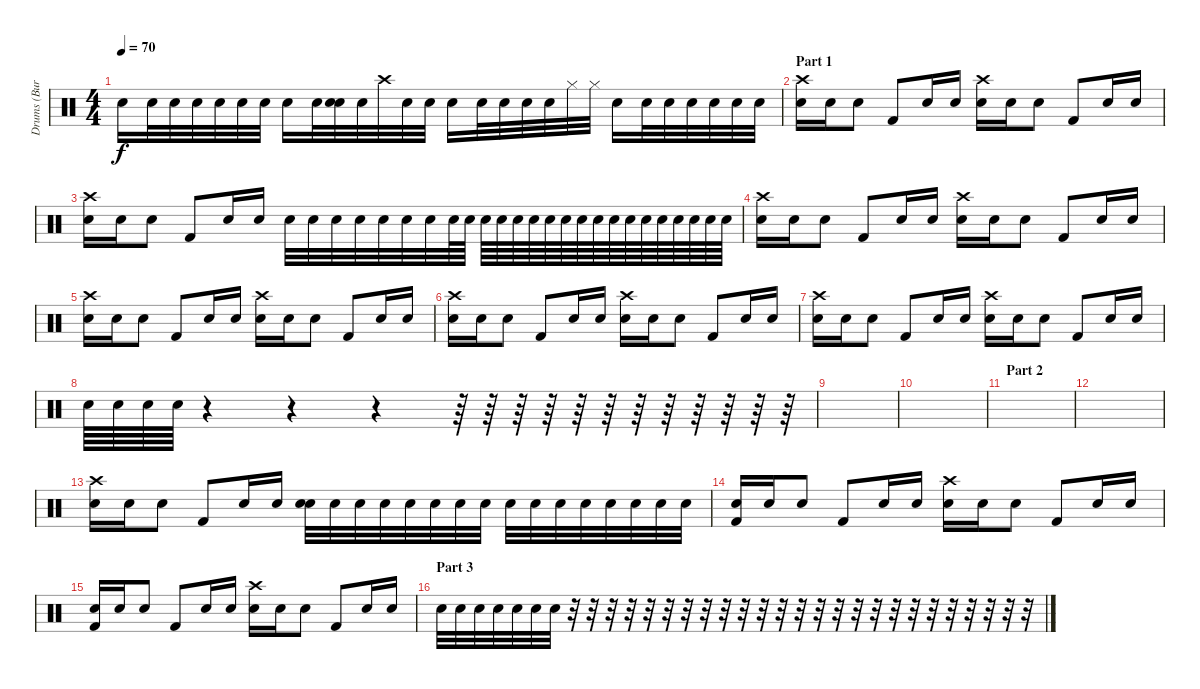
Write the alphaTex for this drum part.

\track ("Drums (Burnz)" "Drums (Bur") {instrument percussion}
\staff {score}
\articulation defaults
\ts (4 4)
\tempo 70
\clef neutral
\ks c "Electric Snare (hit)".16{dy f} "Electric Snare (hit)".32 "Electric Snare (hit)".32 "Electric Snare (hit)".32 "Electric Snare (hit)".32 "Electric Snare (hit)".32 "Electric Snare (hit)".32 "Electric Snare (hit)".16 "Electric Snare (hit)".32
("Electric Snare (hit)" "Electric Snare (hit)").32 "Electric Snare (hit)".32 "Crash high (hit)".32 "Snare (hit) 2".32 "Snare (hit) 2".32 "Snare (hit) 2".16 "Electric Snare (hit)".32 "Electric Snare (hit)".32 "Electric Snare (hit)".32 "Electric Snare (hit)".32 "Hi-Hat (closed)".32 "Hi-Hat (closed)".32 "Snare (hit) 2".16 "Snare (hit) 2".32 "Snare (hit) 2".32 "Electric Snare (hit)".32 "Electric Snare (hit)".32 "Electric Snare (hit)".32 "Electric Snare (hit)".32 |
\section ("" "Part 1")
("Electric Snare (hit)" "Crash high (hit)").16 "Electric Snare (hit)".16 "Electric Snare (hit)".8 "Kick (hit) 2".8 "Electric Snare (hit)".16 "Electric Snare (hit)".16 ("Electric Snare (hit)" "Crash high (hit)").16 "Electric Snare (hit)".16 "Electric Snare (hit)".8 "Kick (hit) 2".8 "Electric Snare (hit)".16 "Electric Snare (hit)".16 |
("Electric Snare (hit)" "Crash high (hit)").16 "Electric Snare (hit)".16 "Electric Snare (hit)".8 "Kick (hit) 2".8 "Electric Snare (hit)".16 "Electric Snare (hit)".16 "Electric Snare (hit)".32 "Electric Snare (hit)".32 "Electric Snare (hit)".32 "Electric Snare (hit)".32 "Electric Snare (hit)".32 "Electric Snare (hit)".32 "Electric Snare (hit)".32 "Electric Snare (hit)".64 "Electric Snare (hit)".64 "Electric Snare (hit)".64 "Electric Snare (hit)".64 "Electric Snare (hit)".64 "Electric Snare (hit)".64 "Electric Snare (hit)".64 "Electric Snare (hit)".64 "Electric Snare (hit)".64 "Electric Snare (hit)".64 "Electric Snare (hit)".64 "Electric Snare (hit)".64 "Electric Snare (hit)".64 "Electric Snare (hit)".64 "Electric Snare (hit)".64 "Electric Snare (hit)".64 "Electric Snare (hit)".64 "Electric Snare (hit)".64 |
("Electric Snare (hit)" "Crash high (hit)").16 "Electric Snare (hit)".16 "Electric Snare (hit)".8 "Kick (hit) 2".8 "Electric Snare (hit)".16 "Electric Snare (hit)".16 ("Electric Snare (hit)" "Crash high (hit)").16 "Electric Snare (hit)".16 "Electric Snare (hit)".8 "Kick (hit) 2".8 "Electric Snare (hit)".16 "Electric Snare (hit)".16 |
("Electric Snare (hit)" "Crash high (hit)").16 "Electric Snare (hit)".16 "Electric Snare (hit)".8 "Kick (hit) 2".8 "Electric Snare (hit)".16 "Electric Snare (hit)".16 ("Electric Snare (hit)" "Crash high (hit)").16 "Electric Snare (hit)".16 "Electric Snare (hit)".8 "Kick (hit) 2".8 "Electric Snare (hit)".16 "Electric Snare (hit)".16 |
("Electric Snare (hit)" "Crash high (hit)").16 "Electric Snare (hit)".16 "Electric Snare (hit)".8 "Kick (hit) 2".8 "Electric Snare (hit)".16 "Electric Snare (hit)".16 ("Electric Snare (hit)" "Crash high (hit)").16 "Electric Snare (hit)".16 "Electric Snare (hit)".8 "Kick (hit) 2".8 "Electric Snare (hit)".16 "Electric Snare (hit)".16 |
("Electric Snare (hit)" "Crash high (hit)").16 "Electric Snare (hit)".16 "Electric Snare (hit)".8 "Kick (hit) 2".8 "Electric Snare (hit)".16 "Electric Snare (hit)".16 ("Electric Snare (hit)" "Crash high (hit)").16 "Electric Snare (hit)".16 "Electric Snare (hit)".8 "Kick (hit) 2".8 "Electric Snare (hit)".16 "Electric Snare (hit)".16 |
"Electric Snare (hit)".64 "Electric Snare (hit)".64 "Electric Snare (hit)".64 "Electric Snare (hit)".64 r.4 r.4 r.4 r.64 r.64 r.64 r.64 r.64 r.64 r.64 r.64 r.64 r.64 r.64 r.64 |
|
|
\section ("" "Part 2")
|
|
("Electric Snare (hit)" "Crash high (hit)").16{volume 0} "Electric Snare (hit)".16 "Electric Snare (hit)".8 "Kick (hit) 2".8 "Electric Snare (hit)".16 "Electric Snare (hit)".16 ("Electric Snare (hit)" "Electric Snare (hit)").32 "Electric Snare (hit)".32 "Electric Snare (hit)".32 "Electric Snare (hit)".32 "Electric Snare (hit)".32 "Electric Snare (hit)".32 "Electric Snare (hit)".32 "Electric Snare (hit)".32 "Electric Snare (hit)".32 "Electric Snare (hit)".32 "Electric Snare (hit)".32 "Electric Snare (hit)".32 "Electric Snare (hit)".32 "Electric Snare (hit)".32 "Electric Snare (hit)".32 "Electric Snare (hit)".32 |
("Electric Snare (hit)" "Kick (hit) 2").16 "Electric Snare (hit)".16 "Electric Snare (hit)".8 "Kick (hit) 2".8 "Electric Snare (hit)".16 "Electric Snare (hit)".16 ("Electric Snare (hit)" "Crash high (hit)").16 "Electric Snare (hit)".16 "Electric Snare (hit)".8 "Kick (hit) 2".8 "Electric Snare (hit)".16 "Electric Snare (hit)".16 |
("Electric Snare (hit)" "Kick (hit) 2").16 "Electric Snare (hit)".16 "Electric Snare (hit)".8 "Kick (hit) 2".8 "Electric Snare (hit)".16 "Electric Snare (hit)".16 ("Electric Snare (hit)" "Crash high (hit)").16 "Electric Snare (hit)".16 "Electric Snare (hit)".8 "Kick (hit) 2".8 "Electric Snare (hit)".16 "Electric Snare (hit)".16 |
\section ("" "Part 3")
"Electric Snare (hit)".32{volume 15} "Electric Snare (hit)".32 "Electric Snare (hit)".32 "Electric Snare (hit)".32 "Electric Snare (hit)".32 "Electric Snare (hit)".32 "Electric Snare (hit)".32 r.32 r.32 r.32 r.32 r.32 r.32 r.32 r.32 r.32 r.32 r.32 r.32 r.32 r.32 r.32 r.32 r.32 r.32 r.32 r.32 r.32 r.32 r.32 r.32 r.32
